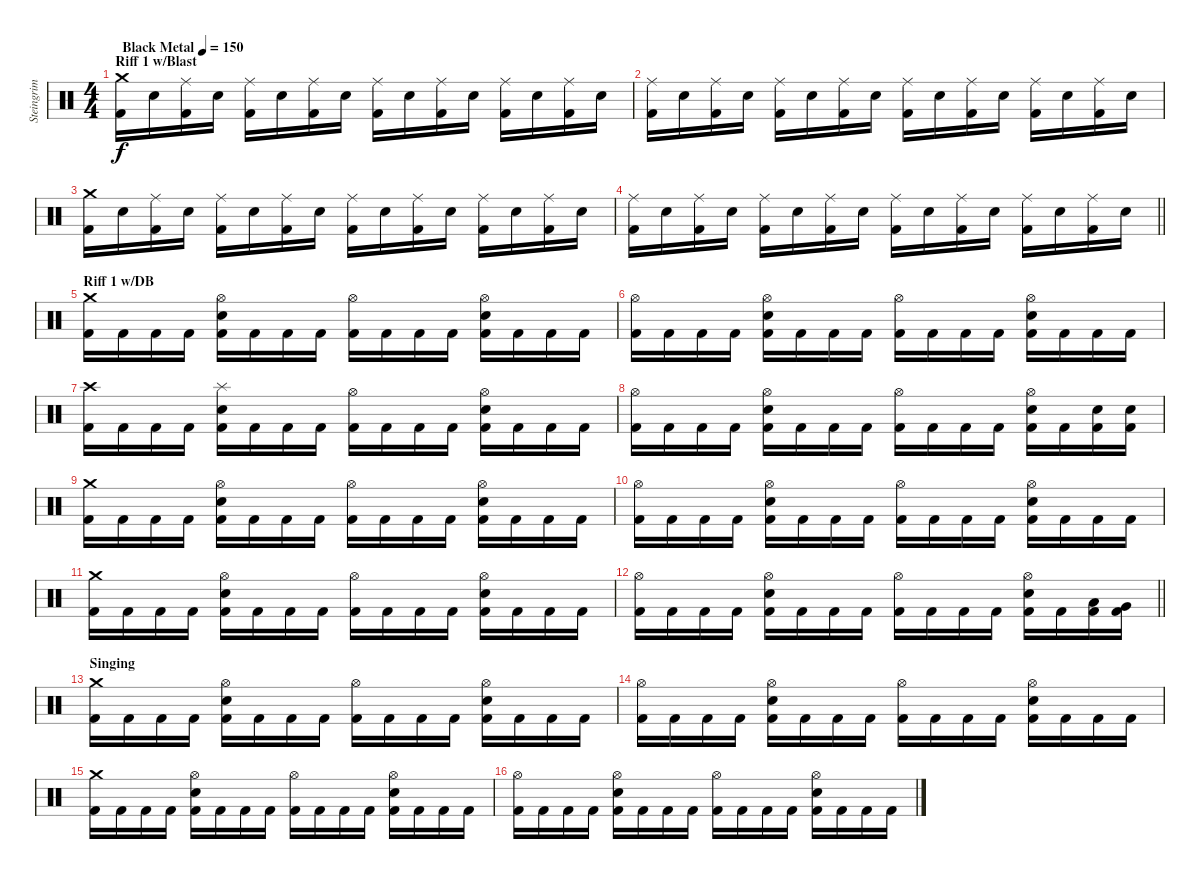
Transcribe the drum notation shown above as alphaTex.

\track ("Steingrim" "Steingrim") {instrument percussion}
\staff {score}
\articulation defaults
\ts (4 4)
\section ("" "Riff 1 w/Blast")
\tempo (150 "Black Metal")
\clef neutral
\ks c
("Crash medium (hit)" "Kick (hit) 2").16{dy f} "Snare (hit) 2".16 ("Ride (middle)" "Kick (hit) 2").16 "Snare (hit) 2".16 ("Ride (middle)" "Kick (hit) 2").16 "Snare (hit) 2".16 ("Ride (middle)" "Kick (hit) 2").16 "Snare (hit) 2".16 ("Ride (middle)" "Kick (hit) 2").16 "Snare (hit) 2".16 ("Ride (middle)" "Kick (hit) 2").16 "Snare (hit) 2".16 ("Ride (middle)" "Kick (hit) 2").16 "Snare (hit) 2".16 ("Ride (middle)" "Kick (hit) 2").16 "Snare (hit) 2".16 |
("Ride (middle)" "Kick (hit) 2").16 "Snare (hit) 2".16 ("Ride (middle)" "Kick (hit) 2").16 "Snare (hit) 2".16 ("Ride (middle)" "Kick (hit) 2").16 "Snare (hit) 2".16 ("Ride (middle)" "Kick (hit) 2").16 "Snare (hit) 2".16 ("Ride (middle)" "Kick (hit) 2").16 "Snare (hit) 2".16 ("Ride (middle)" "Kick (hit) 2").16 "Snare (hit) 2".16 ("Ride (middle)" "Kick (hit) 2").16 "Snare (hit) 2".16 ("Ride (middle)" "Kick (hit) 2").16 "Snare (hit) 2".16 |
("Crash medium (hit)" "Kick (hit) 2").16 "Snare (hit) 2".16 ("Ride (middle)" "Kick (hit) 2").16 "Snare (hit) 2".16 ("Ride (middle)" "Kick (hit) 2").16 "Snare (hit) 2".16 ("Ride (middle)" "Kick (hit) 2").16 "Snare (hit) 2".16 ("Ride (middle)" "Kick (hit) 2").16 "Snare (hit) 2".16 ("Ride (middle)" "Kick (hit) 2").16 "Snare (hit) 2".16 ("Ride (middle)" "Kick (hit) 2").16 "Snare (hit) 2".16 ("Ride (middle)" "Kick (hit) 2").16 "Snare (hit) 2".16 |
\barLineRight lightlight
("Ride (middle)" "Kick (hit) 2").16 "Snare (hit) 2".16 ("Ride (middle)" "Kick (hit) 2").16 "Snare (hit) 2".16 ("Ride (middle)" "Kick (hit) 2").16 "Snare (hit) 2".16 ("Ride (middle)" "Kick (hit) 2").16 "Snare (hit) 2".16 ("Ride (middle)" "Kick (hit) 2").16 "Snare (hit) 2".16 ("Ride (middle)" "Kick (hit) 2").16 "Snare (hit) 2".16 ("Ride (middle)" "Kick (hit) 2").16 "Snare (hit) 2".16 ("Ride (middle)" "Kick (hit) 2").16 "Snare (hit) 2".16 |
\section ("" "Riff 1 w/DB")
("Crash medium (hit)" "Kick (hit) 2").16 "Kick (hit) 2".16 "Kick (hit) 2".16 "Kick (hit) 2".16 ("Hi-Hat (open)" "Snare (hit) 2" "Kick (hit) 2").16 "Kick (hit) 2".16 "Kick (hit) 2".16 "Kick (hit) 2".16 ("Hi-Hat (open)" "Kick (hit) 2").16 "Kick (hit) 2".16 "Kick (hit) 2".16 "Kick (hit) 2".16 ("Hi-Hat (open)" "Snare (hit) 2" "Kick (hit) 2").16 "Kick (hit) 2".16 "Kick (hit) 2".16 "Kick (hit) 2".16 |
("Hi-Hat (open)" "Kick (hit) 2").16 "Kick (hit) 2".16 "Kick (hit) 2".16 "Kick (hit) 2".16 ("Hi-Hat (open)" "Snare (hit) 2" "Kick (hit) 2").16 "Kick (hit) 2".16 "Kick (hit) 2".16 "Kick (hit) 2".16 ("Hi-Hat (open)" "Kick (hit) 2").16 "Kick (hit) 2".16 "Kick (hit) 2".16 "Kick (hit) 2".16 ("Hi-Hat (open)" "Snare (hit) 2" "Kick (hit) 2").16 "Kick (hit) 2".16 "Kick (hit) 2".16 "Kick (hit) 2".16 |
("Crash high (hit)" "Kick (hit) 2").16 "Kick (hit) 2".16 "Kick (hit) 2".16 "Kick (hit) 2".16 ("Splash (hit)" "Snare (hit) 2" "Kick (hit) 2").16 "Kick (hit) 2".16 "Kick (hit) 2".16 "Kick (hit) 2".16 ("Hi-Hat (open)" "Kick (hit) 2").16 "Kick (hit) 2".16 "Kick (hit) 2".16 "Kick (hit) 2".16 ("Hi-Hat (open)" "Snare (hit) 2" "Kick (hit) 2").16 "Kick (hit) 2".16 "Kick (hit) 2".16 "Kick (hit) 2".16 |
("Hi-Hat (open)" "Kick (hit) 2").16 "Kick (hit) 2".16 "Kick (hit) 2".16 "Kick (hit) 2".16 ("Hi-Hat (open)" "Snare (hit) 2" "Kick (hit) 2").16 "Kick (hit) 2".16 "Kick (hit) 2".16 "Kick (hit) 2".16 ("Hi-Hat (open)" "Kick (hit) 2").16 "Kick (hit) 2".16 "Kick (hit) 2".16 "Kick (hit) 2".16 ("Hi-Hat (open)" "Snare (hit) 2" "Kick (hit) 2").16 "Kick (hit) 2".16 ("Snare (hit) 2" "Kick (hit) 2").16 ("Snare (hit) 2" "Kick (hit) 2").16 |
("Crash medium (hit)" "Kick (hit) 2").16 "Kick (hit) 2".16 "Kick (hit) 2".16 "Kick (hit) 2".16 ("Hi-Hat (open)" "Snare (hit) 2" "Kick (hit) 2").16 "Kick (hit) 2".16 "Kick (hit) 2".16 "Kick (hit) 2".16 ("Hi-Hat (open)" "Kick (hit) 2").16 "Kick (hit) 2".16 "Kick (hit) 2".16 "Kick (hit) 2".16 ("Hi-Hat (open)" "Snare (hit) 2" "Kick (hit) 2").16 "Kick (hit) 2".16 "Kick (hit) 2".16 "Kick (hit) 2".16 |
("Hi-Hat (open)" "Kick (hit) 2").16 "Kick (hit) 2".16 "Kick (hit) 2".16 "Kick (hit) 2".16 ("Hi-Hat (open)" "Snare (hit) 2" "Kick (hit) 2").16 "Kick (hit) 2".16 "Kick (hit) 2".16 "Kick (hit) 2".16 ("Hi-Hat (open)" "Kick (hit) 2").16 "Kick (hit) 2".16 "Kick (hit) 2".16 "Kick (hit) 2".16 ("Hi-Hat (open)" "Snare (hit) 2" "Kick (hit) 2").16 "Kick (hit) 2".16 "Kick (hit) 2".16 "Kick (hit) 2".16 |
("Crash medium (hit)" "Kick (hit) 2").16 "Kick (hit) 2".16 "Kick (hit) 2".16 "Kick (hit) 2".16 ("Hi-Hat (open)" "Snare (hit) 2" "Kick (hit) 2").16 "Kick (hit) 2".16 "Kick (hit) 2".16 "Kick (hit) 2".16 ("Hi-Hat (open)" "Kick (hit) 2").16 "Kick (hit) 2".16 "Kick (hit) 2".16 "Kick (hit) 2".16 ("Hi-Hat (open)" "Snare (hit) 2" "Kick (hit) 2").16 "Kick (hit) 2".16 "Kick (hit) 2".16 "Kick (hit) 2".16 |
\barLineRight lightlight
("Hi-Hat (open)" "Kick (hit) 2").16 "Kick (hit) 2".16 "Kick (hit) 2".16 "Kick (hit) 2".16 ("Hi-Hat (open)" "Snare (hit) 2" "Kick (hit) 2").16 "Kick (hit) 2".16 "Kick (hit) 2".16 "Kick (hit) 2".16 ("Hi-Hat (open)" "Kick (hit) 2").16 "Kick (hit) 2".16 "Kick (hit) 2".16 "Kick (hit) 2".16 ("Hi-Hat (open)" "Snare (hit) 2" "Kick (hit) 2").16 "Kick (hit) 2".16 ("Low Tom (hit)" "Kick (hit) 2").16 ("Very Low Tom (hit)" "Kick (hit) 2").16 |
\section ("" "Singing")
("Crash medium (hit)" "Kick (hit) 2").16 "Kick (hit) 2".16 "Kick (hit) 2".16 "Kick (hit) 2".16 ("Hi-Hat (open)" "Snare (hit) 2" "Kick (hit) 2").16 "Kick (hit) 2".16 "Kick (hit) 2".16 "Kick (hit) 2".16 ("Hi-Hat (open)" "Kick (hit) 2").16 "Kick (hit) 2".16 "Kick (hit) 2".16 "Kick (hit) 2".16 ("Hi-Hat (open)" "Snare (hit) 2" "Kick (hit) 2").16 "Kick (hit) 2".16 "Kick (hit) 2".16 "Kick (hit) 2".16 |
("Hi-Hat (open)" "Kick (hit) 2").16 "Kick (hit) 2".16 "Kick (hit) 2".16 "Kick (hit) 2".16 ("Hi-Hat (open)" "Snare (hit) 2" "Kick (hit) 2").16 "Kick (hit) 2".16 "Kick (hit) 2".16 "Kick (hit) 2".16 ("Hi-Hat (open)" "Kick (hit) 2").16 "Kick (hit) 2".16 "Kick (hit) 2".16 "Kick (hit) 2".16 ("Hi-Hat (open)" "Snare (hit) 2" "Kick (hit) 2").16 "Kick (hit) 2".16 "Kick (hit) 2".16 "Kick (hit) 2".16 |
("Crash medium (hit)" "Kick (hit) 2").16 "Kick (hit) 2".16 "Kick (hit) 2".16 "Kick (hit) 2".16 ("Hi-Hat (open)" "Snare (hit) 2" "Kick (hit) 2").16 "Kick (hit) 2".16 "Kick (hit) 2".16 "Kick (hit) 2".16 ("Hi-Hat (open)" "Kick (hit) 2").16 "Kick (hit) 2".16 "Kick (hit) 2".16 "Kick (hit) 2".16 ("Hi-Hat (open)" "Snare (hit) 2" "Kick (hit) 2").16 "Kick (hit) 2".16 "Kick (hit) 2".16 "Kick (hit) 2".16 |
("Hi-Hat (open)" "Kick (hit) 2").16 "Kick (hit) 2".16 "Kick (hit) 2".16 "Kick (hit) 2".16 ("Hi-Hat (open)" "Snare (hit) 2" "Kick (hit) 2").16 "Kick (hit) 2".16 "Kick (hit) 2".16 "Kick (hit) 2".16 ("Hi-Hat (open)" "Kick (hit) 2").16 "Kick (hit) 2".16 "Kick (hit) 2".16 "Kick (hit) 2".16 ("Hi-Hat (open)" "Snare (hit) 2" "Kick (hit) 2").16 "Kick (hit) 2".16 "Kick (hit) 2".16 "Kick (hit) 2".16
